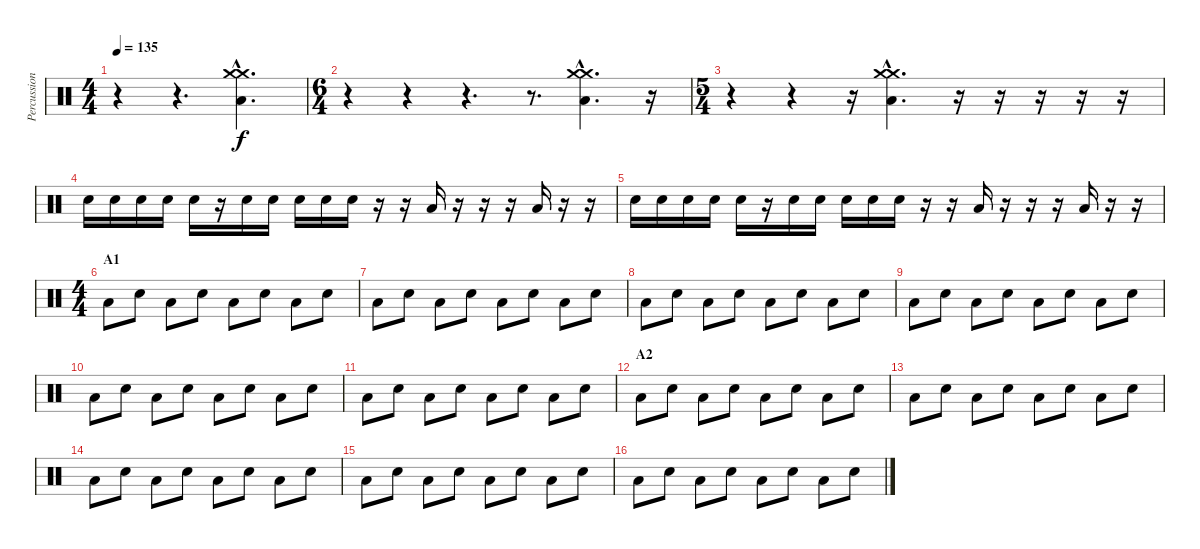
\track ("Percussion" "Percussion") {instrument percussion}
\staff {score}
\articulation defaults
\ts (4 4)
\tempo 135
\clef neutral
\ks c
r.4{dy f} r.4{d} ("Low Floor Tom (hit)"{hac} "Crash medium (hit)"{hac} "Crash medium (hit)"{hac}).4{d} |
\ts (6 4)
r.4 r.4 r.4{d} r.8{d} ("Low Floor Tom (hit)"{hac} "Crash medium (hit)"{hac} "Crash medium (hit)"{hac}).4{d} r.16 |
\ts (5 4)
r.4 r.4 r.16 ("Low Floor Tom (hit)"{hac} "Crash medium (hit)"{hac} "Crash medium (hit)"{hac}).4{d} r.16 r.16 r.16 r.16 r.16 |
"Electric Snare (hit)".16 "Electric Snare (hit)".16 "Electric Snare (hit)".16 "Electric Snare (hit)".16 "Electric Snare (hit)".16 r.16 "Electric Snare (hit)".16 "Electric Snare (hit)".16 "Electric Snare (hit)".16 "Electric Snare (hit)".16 "Electric Snare (hit)".16 r.16 r.16 "Low Floor Tom (hit)".16 r.16 r.16 r.16 "Low Floor Tom (hit)".16 r.16 r.16 |
"Electric Snare (hit)".16 "Electric Snare (hit)".16 "Electric Snare (hit)".16 "Electric Snare (hit)".16 "Electric Snare (hit)".16 r.16 "Electric Snare (hit)".16 "Electric Snare (hit)".16 "Electric Snare (hit)".16 "Electric Snare (hit)".16 "Electric Snare (hit)".16 r.16 r.16 "Low Floor Tom (hit)".16 r.16 r.16 r.16 "Low Floor Tom (hit)".16 r.16 r.16 |
\ts (4 4)
\section ("" "A1")
"Low Floor Tom (hit)".8 "Electric Snare (hit)".8 "Low Floor Tom (hit)".8 "Electric Snare (hit)".8 "Low Floor Tom (hit)".8 "Electric Snare (hit)".8 "Low Floor Tom (hit)".8 "Electric Snare (hit)".8 |
"Low Floor Tom (hit)".8 "Electric Snare (hit)".8 "Low Floor Tom (hit)".8 "Electric Snare (hit)".8 "Low Floor Tom (hit)".8 "Electric Snare (hit)".8 "Low Floor Tom (hit)".8 "Electric Snare (hit)".8 |
"Low Floor Tom (hit)".8 "Electric Snare (hit)".8 "Low Floor Tom (hit)".8 "Electric Snare (hit)".8 "Low Floor Tom (hit)".8 "Electric Snare (hit)".8 "Low Floor Tom (hit)".8 "Electric Snare (hit)".8 |
"Low Floor Tom (hit)".8 "Electric Snare (hit)".8 "Low Floor Tom (hit)".8 "Electric Snare (hit)".8 "Low Floor Tom (hit)".8 "Electric Snare (hit)".8 "Low Floor Tom (hit)".8 "Electric Snare (hit)".8 |
"Low Floor Tom (hit)".8 "Electric Snare (hit)".8 "Low Floor Tom (hit)".8 "Electric Snare (hit)".8 "Low Floor Tom (hit)".8 "Electric Snare (hit)".8 "Low Floor Tom (hit)".8 "Electric Snare (hit)".8 |
"Low Floor Tom (hit)".8 "Electric Snare (hit)".8 "Low Floor Tom (hit)".8 "Electric Snare (hit)".8 "Low Floor Tom (hit)".8 "Electric Snare (hit)".8 "Low Floor Tom (hit)".8 "Electric Snare (hit)".8 |
\section ("" "A2")
"Low Floor Tom (hit)".8 "Electric Snare (hit)".8 "Low Floor Tom (hit)".8 "Electric Snare (hit)".8 "Low Floor Tom (hit)".8 "Electric Snare (hit)".8 "Low Floor Tom (hit)".8 "Electric Snare (hit)".8 |
"Low Floor Tom (hit)".8 "Electric Snare (hit)".8 "Low Floor Tom (hit)".8 "Electric Snare (hit)".8 "Low Floor Tom (hit)".8 "Electric Snare (hit)".8 "Low Floor Tom (hit)".8 "Electric Snare (hit)".8 |
"Low Floor Tom (hit)".8 "Electric Snare (hit)".8 "Low Floor Tom (hit)".8 "Electric Snare (hit)".8 "Low Floor Tom (hit)".8 "Electric Snare (hit)".8 "Low Floor Tom (hit)".8 "Electric Snare (hit)".8 |
"Low Floor Tom (hit)".8 "Electric Snare (hit)".8 "Low Floor Tom (hit)".8 "Electric Snare (hit)".8 "Low Floor Tom (hit)".8 "Electric Snare (hit)".8 "Low Floor Tom (hit)".8 "Electric Snare (hit)".8 |
"Low Floor Tom (hit)".8 "Electric Snare (hit)".8 "Low Floor Tom (hit)".8 "Electric Snare (hit)".8 "Low Floor Tom (hit)".8 "Electric Snare (hit)".8 "Low Floor Tom (hit)".8 "Electric Snare (hit)".8
